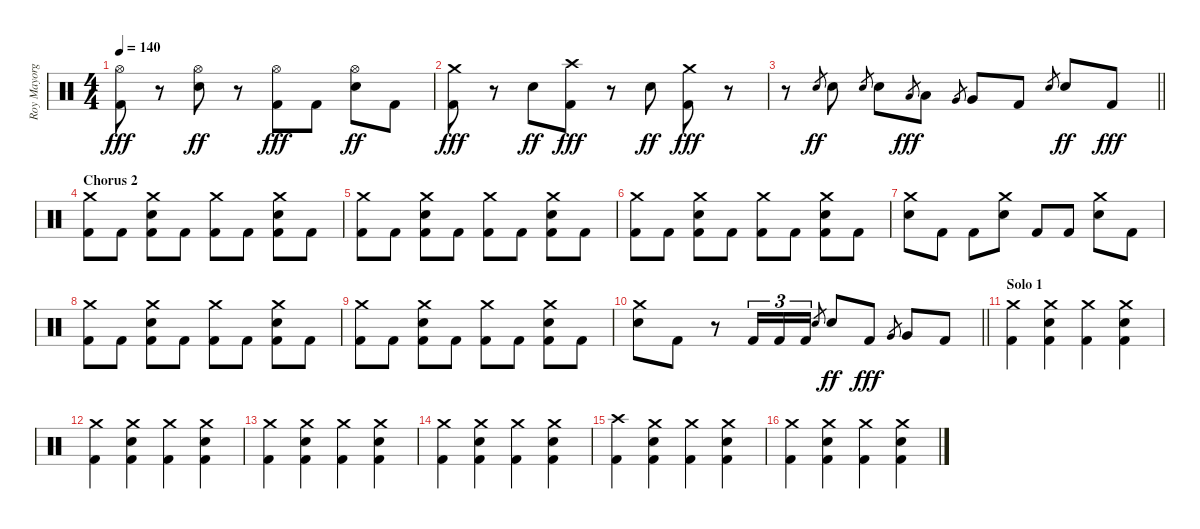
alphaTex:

\track ("Roy Mayorga" "Roy Mayorg") {instrument percussion}
\staff {score}
\articulation defaults
\ts (4 4)
\tempo 140
\clef neutral
\ks c
("Hi-Hat (open)" "Kick (hit) 2").8{dy fff} r.8 ("Hi-Hat (open)" "Electric Snare (hit)").8{dy ff} r.8 ("Hi-Hat (open)" "Kick (hit) 2").8{dy fff} "Kick (hit) 2".8 ("Hi-Hat (open)" "Electric Snare (hit)").8{dy ff} "Kick (hit) 2".8 |
("Crash medium (hit)" "Kick (hit) 2").8{dy fff} r.8 "Electric Snare (hit)".8{dy ff} ("Crash high (hit)" "Kick (hit) 2").8{dy fff} r.8 "Electric Snare (hit)".8{dy ff} ("Crash medium (hit)" "Kick (hit) 2").8{dy fff} r.8 |
\barLineRight lightlight
r.8 "Electric Snare (hit)".8{gr dy ff} "Electric Snare (hit)".8 "Electric Snare (hit)".8{gr} "Electric Snare (hit)".8 "Low Tom (hit)".8{gr dy fff} "Low Tom (hit)".8 "Very Low Tom (hit)".8{gr} "Very Low Tom (hit)".8 "Kick (hit) 2".8 "Electric Snare (hit)".8{gr} "Electric Snare (hit)".8{dy ff} "Kick (hit) 2".8{dy fff} |
\section ("" "Chorus 2")
("Crash medium (hit)" "Kick (hit) 2").8 "Kick (hit) 2".8 ("Crash medium (hit)" "Electric Snare (hit)" "Kick (hit) 2").8 "Kick (hit) 2".8 ("Crash medium (hit)" "Kick (hit) 2").8 "Kick (hit) 2".8 ("Crash medium (hit)" "Electric Snare (hit)" "Kick (hit) 2").8 "Kick (hit) 2".8 |
("Crash medium (hit)" "Kick (hit) 2").8 "Kick (hit) 2".8 ("Crash medium (hit)" "Electric Snare (hit)" "Kick (hit) 2").8 "Kick (hit) 2".8 ("Crash medium (hit)" "Kick (hit) 2").8 "Kick (hit) 2".8 ("Crash medium (hit)" "Electric Snare (hit)" "Kick (hit) 2").8 "Kick (hit) 2".8 |
("Crash medium (hit)" "Kick (hit) 2").8 "Kick (hit) 2".8 ("Crash medium (hit)" "Electric Snare (hit)" "Kick (hit) 2").8 "Kick (hit) 2".8 ("Crash medium (hit)" "Kick (hit) 2").8 "Kick (hit) 2".8 ("Crash medium (hit)" "Electric Snare (hit)" "Kick (hit) 2").8 "Kick (hit) 2".8 |
("Crash medium (hit)" "Electric Snare (hit)").8 "Kick (hit) 2".8 "Kick (hit) 2".8 ("Crash medium (hit)" "Electric Snare (hit)").8 "Kick (hit) 2".8 "Kick (hit) 2".8 ("Crash medium (hit)" "Electric Snare (hit)").8 "Kick (hit) 2".8 |
("Crash medium (hit)" "Kick (hit) 2").8 "Kick (hit) 2".8 ("Crash medium (hit)" "Electric Snare (hit)" "Kick (hit) 2").8 "Kick (hit) 2".8 ("Crash medium (hit)" "Kick (hit) 2").8 "Kick (hit) 2".8 ("Crash medium (hit)" "Electric Snare (hit)" "Kick (hit) 2").8 "Kick (hit) 2".8 |
("Crash medium (hit)" "Kick (hit) 2").8 "Kick (hit) 2".8 ("Crash medium (hit)" "Electric Snare (hit)" "Kick (hit) 2").8 "Kick (hit) 2".8 ("Crash medium (hit)" "Kick (hit) 2").8 "Kick (hit) 2".8 ("Crash medium (hit)" "Electric Snare (hit)" "Kick (hit) 2").8 "Kick (hit) 2".8 |
\barLineRight lightlight
("Crash medium (hit)" "Electric Snare (hit)").8 "Kick (hit) 2".8 r.8 "Kick (hit) 2".16{tu (3 2)} "Kick (hit) 2".16{tu (3 2)} "Kick (hit) 2".16{tu (3 2)} "Electric Snare (hit)".8{gr} "Electric Snare (hit)".8{dy ff} "Kick (hit) 2".8{dy fff} "Very Low Tom (hit)".8{gr} "Very Low Tom (hit)".8 "Kick (hit) 2".8 |
\section ("" "Solo 1")
("Crash medium (hit)" "Kick (hit) 2").4 ("Crash medium (hit)" "Electric Snare (hit)" "Kick (hit) 2").4 ("Crash medium (hit)" "Kick (hit) 2").4 ("Crash medium (hit)" "Electric Snare (hit)" "Kick (hit) 2").4 |
("Crash medium (hit)" "Kick (hit) 2").4 ("Crash medium (hit)" "Electric Snare (hit)" "Kick (hit) 2").4 ("Crash medium (hit)" "Kick (hit) 2").4 ("Crash medium (hit)" "Electric Snare (hit)" "Kick (hit) 2").4 |
("Crash medium (hit)" "Kick (hit) 2").4 ("Crash medium (hit)" "Electric Snare (hit)" "Kick (hit) 2").4 ("Crash medium (hit)" "Kick (hit) 2").4 ("Crash medium (hit)" "Electric Snare (hit)" "Kick (hit) 2").4 |
("Crash medium (hit)" "Kick (hit) 2").4 ("Crash medium (hit)" "Electric Snare (hit)" "Kick (hit) 2").4 ("Crash medium (hit)" "Kick (hit) 2").4 ("Crash medium (hit)" "Electric Snare (hit)" "Kick (hit) 2").4 |
("Crash high (hit)" "Kick (hit) 2").4 ("Crash medium (hit)" "Electric Snare (hit)" "Kick (hit) 2").4 ("Crash medium (hit)" "Kick (hit) 2").4 ("Crash medium (hit)" "Electric Snare (hit)" "Kick (hit) 2").4 |
("Crash medium (hit)" "Kick (hit) 2").4 ("Crash medium (hit)" "Electric Snare (hit)" "Kick (hit) 2").4 ("Crash medium (hit)" "Kick (hit) 2").4 ("Crash medium (hit)" "Electric Snare (hit)" "Kick (hit) 2").4
